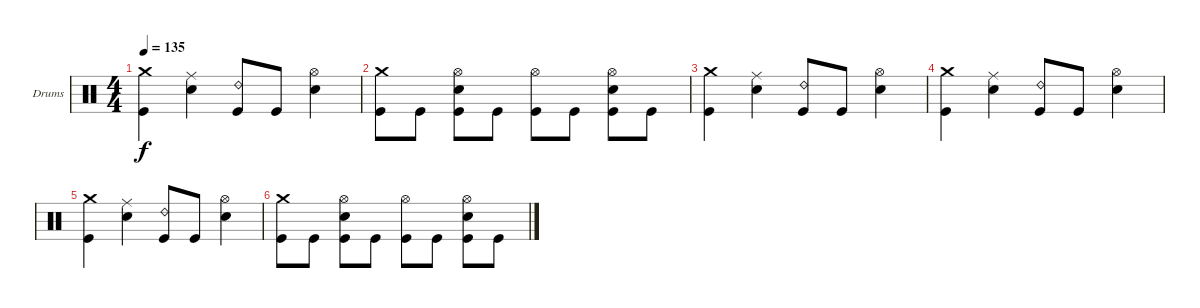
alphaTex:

\bracketExtendMode groupsimilarinstruments
\firstSystemTrackNameOrientation horizontal
\otherSystemsTrackNameOrientation horizontal
\track ("Drumkit" "Drums") {multiBarRest instrument percussion}
\staff {score}
\articulation defaults
\ts (4 4)
\tempo 135
\clef neutral
\ks c
("Crash medium (hit)" "Kick (hit)").4{dy f} ("Ride (middle)" "Snare (hit) 2").4 ("Ride (bell) 2" "Kick (hit)").8 "Kick (hit)".8 ("Hi-Hat (open)" "Snare (hit) 2").4 |
("Crash medium (hit)" "Kick (hit)").8 "Kick (hit)".8 ("Hi-Hat (open)" "Snare (hit) 2" "Kick (hit)").8 "Kick (hit)".8 ("Hi-Hat (open)" "Kick (hit)").8 "Kick (hit)".8 ("Hi-Hat (open)" "Snare (hit) 2" "Kick (hit)").8 "Kick (hit)".8 |
("Crash medium (hit)" "Kick (hit)").4 ("Ride (middle)" "Snare (hit) 2").4 ("Ride (bell) 2" "Kick (hit)").8 "Kick (hit)".8 ("Hi-Hat (open)" "Snare (hit) 2").4 |
("Crash medium (hit)" "Kick (hit)").4 ("Ride (middle)" "Snare (hit) 2").4 ("Ride (bell) 2" "Kick (hit)").8 "Kick (hit)".8 ("Hi-Hat (open)" "Snare (hit) 2").4 |
("Crash medium (hit)" "Kick (hit)").4 ("Ride (middle)" "Snare (hit) 2").4 ("Ride (bell) 2" "Kick (hit)").8 "Kick (hit)".8 ("Hi-Hat (open)" "Snare (hit) 2").4 |
("Crash medium (hit)" "Kick (hit)").8 "Kick (hit)".8 ("Hi-Hat (open)" "Snare (hit) 2" "Kick (hit)").8 "Kick (hit)".8 ("Hi-Hat (open)" "Kick (hit)").8 "Kick (hit)".8 ("Hi-Hat (open)" "Snare (hit) 2" "Kick (hit)").8 "Kick (hit)".8
